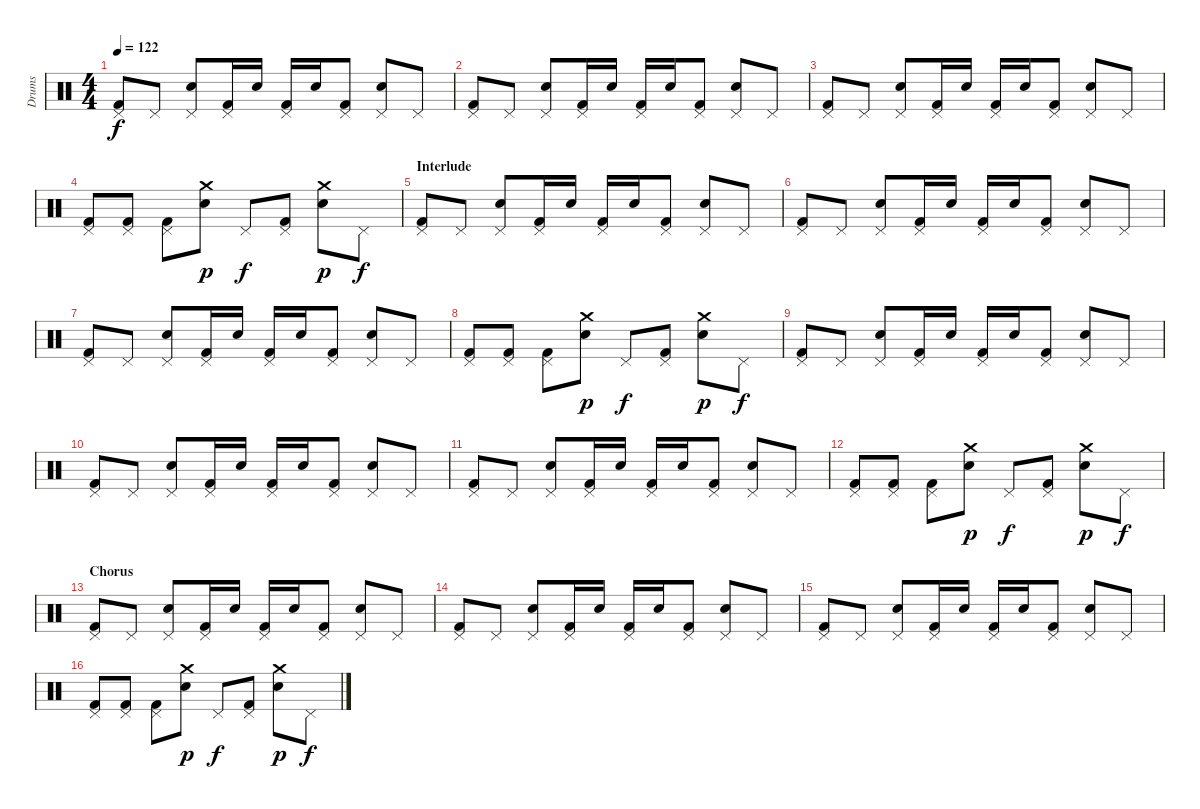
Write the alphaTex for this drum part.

\track ("Drums" "Drums") {instrument percussion}
\staff {score}
\articulation defaults
\ts (4 4)
\tempo 122
\clef neutral
\ks c
("Pedal Hi-Hat (hit)" "Kick (hit) 2").8{dy f} "Pedal Hi-Hat (hit)".8 ("Pedal Hi-Hat (hit)" "Electric Snare (hit)").8 ("Pedal Hi-Hat (hit)" "Kick (hit) 2").16 "Electric Snare (hit)".16 ("Pedal Hi-Hat (hit)" "Kick (hit) 2").16 "Electric Snare (hit)".16 ("Pedal Hi-Hat (hit)" "Kick (hit) 2").8 ("Pedal Hi-Hat (hit)" "Electric Snare (hit)").8 "Pedal Hi-Hat (hit)".8 |
("Pedal Hi-Hat (hit)" "Kick (hit) 2").8 "Pedal Hi-Hat (hit)".8 ("Pedal Hi-Hat (hit)" "Electric Snare (hit)").8 ("Pedal Hi-Hat (hit)" "Kick (hit) 2").16 "Electric Snare (hit)".16 ("Pedal Hi-Hat (hit)" "Kick (hit) 2").16 "Electric Snare (hit)".16 ("Pedal Hi-Hat (hit)" "Kick (hit) 2").8 ("Pedal Hi-Hat (hit)" "Electric Snare (hit)").8 "Pedal Hi-Hat (hit)".8 |
("Pedal Hi-Hat (hit)" "Kick (hit) 2").8 "Pedal Hi-Hat (hit)".8 ("Pedal Hi-Hat (hit)" "Electric Snare (hit)").8 ("Pedal Hi-Hat (hit)" "Kick (hit) 2").16 "Electric Snare (hit)".16 ("Pedal Hi-Hat (hit)" "Kick (hit) 2").16 "Electric Snare (hit)".16 ("Pedal Hi-Hat (hit)" "Kick (hit) 2").8 ("Pedal Hi-Hat (hit)" "Electric Snare (hit)").8 "Pedal Hi-Hat (hit)".8 |
("Pedal Hi-Hat (hit)" "Kick (hit) 2").8 ("Pedal Hi-Hat (hit)" "Kick (hit) 2").8 ("Pedal Hi-Hat (hit)" "Kick (hit) 2").8 ("Crash medium (hit)" "Electric Snare (hit)").8{dy p} "Pedal Hi-Hat (hit)".8{dy f} ("Pedal Hi-Hat (hit)" "Kick (hit) 2").8 ("Crash medium (hit)" "Electric Snare (hit)").8{dy p} "Pedal Hi-Hat (hit)".8{dy f} |
\section ("" "Interlude")
("Pedal Hi-Hat (hit)" "Kick (hit) 2").8 "Pedal Hi-Hat (hit)".8 ("Pedal Hi-Hat (hit)" "Electric Snare (hit)").8 ("Pedal Hi-Hat (hit)" "Kick (hit) 2").16 "Electric Snare (hit)".16 ("Pedal Hi-Hat (hit)" "Kick (hit) 2").16 "Electric Snare (hit)".16 ("Pedal Hi-Hat (hit)" "Kick (hit) 2").8 ("Pedal Hi-Hat (hit)" "Electric Snare (hit)").8 "Pedal Hi-Hat (hit)".8 |
("Pedal Hi-Hat (hit)" "Kick (hit) 2").8 "Pedal Hi-Hat (hit)".8 ("Pedal Hi-Hat (hit)" "Electric Snare (hit)").8 ("Pedal Hi-Hat (hit)" "Kick (hit) 2").16 "Electric Snare (hit)".16 ("Pedal Hi-Hat (hit)" "Kick (hit) 2").16 "Electric Snare (hit)".16 ("Pedal Hi-Hat (hit)" "Kick (hit) 2").8 ("Pedal Hi-Hat (hit)" "Electric Snare (hit)").8 "Pedal Hi-Hat (hit)".8 |
("Pedal Hi-Hat (hit)" "Kick (hit) 2").8 "Pedal Hi-Hat (hit)".8 ("Pedal Hi-Hat (hit)" "Electric Snare (hit)").8 ("Pedal Hi-Hat (hit)" "Kick (hit) 2").16 "Electric Snare (hit)".16 ("Pedal Hi-Hat (hit)" "Kick (hit) 2").16 "Electric Snare (hit)".16 ("Pedal Hi-Hat (hit)" "Kick (hit) 2").8 ("Pedal Hi-Hat (hit)" "Electric Snare (hit)").8 "Pedal Hi-Hat (hit)".8 |
("Pedal Hi-Hat (hit)" "Kick (hit) 2").8 ("Pedal Hi-Hat (hit)" "Kick (hit) 2").8 ("Pedal Hi-Hat (hit)" "Kick (hit) 2").8 ("Crash medium (hit)" "Electric Snare (hit)").8{dy p} "Pedal Hi-Hat (hit)".8{dy f} ("Pedal Hi-Hat (hit)" "Kick (hit) 2").8 ("Crash medium (hit)" "Electric Snare (hit)").8{dy p} "Pedal Hi-Hat (hit)".8{dy f} |
("Pedal Hi-Hat (hit)" "Kick (hit) 2").8 "Pedal Hi-Hat (hit)".8 ("Pedal Hi-Hat (hit)" "Electric Snare (hit)").8 ("Pedal Hi-Hat (hit)" "Kick (hit) 2").16 "Electric Snare (hit)".16 ("Pedal Hi-Hat (hit)" "Kick (hit) 2").16 "Electric Snare (hit)".16 ("Pedal Hi-Hat (hit)" "Kick (hit) 2").8 ("Pedal Hi-Hat (hit)" "Electric Snare (hit)").8 "Pedal Hi-Hat (hit)".8 |
("Pedal Hi-Hat (hit)" "Kick (hit) 2").8 "Pedal Hi-Hat (hit)".8 ("Pedal Hi-Hat (hit)" "Electric Snare (hit)").8 ("Pedal Hi-Hat (hit)" "Kick (hit) 2").16 "Electric Snare (hit)".16 ("Pedal Hi-Hat (hit)" "Kick (hit) 2").16 "Electric Snare (hit)".16 ("Pedal Hi-Hat (hit)" "Kick (hit) 2").8 ("Pedal Hi-Hat (hit)" "Electric Snare (hit)").8 "Pedal Hi-Hat (hit)".8 |
("Pedal Hi-Hat (hit)" "Kick (hit) 2").8 "Pedal Hi-Hat (hit)".8 ("Pedal Hi-Hat (hit)" "Electric Snare (hit)").8 ("Pedal Hi-Hat (hit)" "Kick (hit) 2").16 "Electric Snare (hit)".16 ("Pedal Hi-Hat (hit)" "Kick (hit) 2").16 "Electric Snare (hit)".16 ("Pedal Hi-Hat (hit)" "Kick (hit) 2").8 ("Pedal Hi-Hat (hit)" "Electric Snare (hit)").8 "Pedal Hi-Hat (hit)".8 |
("Pedal Hi-Hat (hit)" "Kick (hit) 2").8 ("Pedal Hi-Hat (hit)" "Kick (hit) 2").8 ("Pedal Hi-Hat (hit)" "Kick (hit) 2").8 ("Crash medium (hit)" "Electric Snare (hit)").8{dy p} "Pedal Hi-Hat (hit)".8{dy f} ("Pedal Hi-Hat (hit)" "Kick (hit) 2").8 ("Crash medium (hit)" "Electric Snare (hit)").8{dy p} "Pedal Hi-Hat (hit)".8{dy f} |
\section ("" "Chorus")
("Pedal Hi-Hat (hit)" "Kick (hit) 2").8 "Pedal Hi-Hat (hit)".8 ("Pedal Hi-Hat (hit)" "Electric Snare (hit)").8 ("Pedal Hi-Hat (hit)" "Kick (hit) 2").16 "Electric Snare (hit)".16 ("Pedal Hi-Hat (hit)" "Kick (hit) 2").16 "Electric Snare (hit)".16 ("Pedal Hi-Hat (hit)" "Kick (hit) 2").8 ("Pedal Hi-Hat (hit)" "Electric Snare (hit)").8 "Pedal Hi-Hat (hit)".8 |
("Pedal Hi-Hat (hit)" "Kick (hit) 2").8 "Pedal Hi-Hat (hit)".8 ("Pedal Hi-Hat (hit)" "Electric Snare (hit)").8 ("Pedal Hi-Hat (hit)" "Kick (hit) 2").16 "Electric Snare (hit)".16 ("Pedal Hi-Hat (hit)" "Kick (hit) 2").16 "Electric Snare (hit)".16 ("Pedal Hi-Hat (hit)" "Kick (hit) 2").8 ("Pedal Hi-Hat (hit)" "Electric Snare (hit)").8 "Pedal Hi-Hat (hit)".8 |
("Pedal Hi-Hat (hit)" "Kick (hit) 2").8 "Pedal Hi-Hat (hit)".8 ("Pedal Hi-Hat (hit)" "Electric Snare (hit)").8 ("Pedal Hi-Hat (hit)" "Kick (hit) 2").16 "Electric Snare (hit)".16 ("Pedal Hi-Hat (hit)" "Kick (hit) 2").16 "Electric Snare (hit)".16 ("Pedal Hi-Hat (hit)" "Kick (hit) 2").8 ("Pedal Hi-Hat (hit)" "Electric Snare (hit)").8 "Pedal Hi-Hat (hit)".8 |
("Pedal Hi-Hat (hit)" "Kick (hit) 2").8 ("Pedal Hi-Hat (hit)" "Kick (hit) 2").8 ("Pedal Hi-Hat (hit)" "Kick (hit) 2").8 ("Crash medium (hit)" "Electric Snare (hit)").8{dy p} "Pedal Hi-Hat (hit)".8{dy f} ("Pedal Hi-Hat (hit)" "Kick (hit) 2").8 ("Crash medium (hit)" "Electric Snare (hit)").8{dy p} "Pedal Hi-Hat (hit)".8{dy f}
